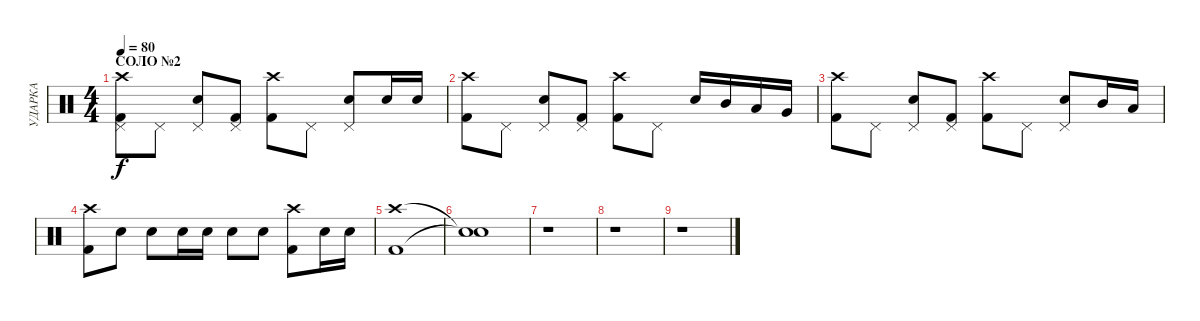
\track ("УДАРКА" "УДАРКА") {instrument percussion}
\staff {score}
\articulation defaults
\ts (4 4)
\section ("" "СОЛО №2")
\tempo 80
\clef neutral
\ks c
("Pedal Hi-Hat (hit)" "Kick (hit) 2" "Crash high (hit)").8{dy f} "Pedal Hi-Hat (hit)".8 ("Pedal Hi-Hat (hit)" "Electric Snare (hit)").8 ("Pedal Hi-Hat (hit)" "Kick (hit) 2").8 ("Crash high (hit)" "Kick (hit) 2").8 "Pedal Hi-Hat (hit)".8 ("Pedal Hi-Hat (hit)" "Electric Snare (hit)").8 "Electric Snare (hit)".16 "Electric Snare (hit)".16 |
("Crash high (hit)" "Kick (hit) 2").8 "Pedal Hi-Hat (hit)".8 ("Pedal Hi-Hat (hit)" "Electric Snare (hit)").8 ("Pedal Hi-Hat (hit)" "Kick (hit) 2").8 ("Crash high (hit)" "Kick (hit) 2").8 "Pedal Hi-Hat (hit)".8 "Electric Snare (hit)".16 "Mid Tom (hit)".16 "Low Tom (hit)".16 "Very Low Tom (hit)".16 |
("Crash high (hit)" "Kick (hit) 2").8 "Pedal Hi-Hat (hit)".8 ("Pedal Hi-Hat (hit)" "Electric Snare (hit)").8 ("Pedal Hi-Hat (hit)" "Kick (hit) 2").8 ("Crash high (hit)" "Kick (hit) 2").8 "Pedal Hi-Hat (hit)".8 ("Pedal Hi-Hat (hit)" "Electric Snare (hit)").8 "Mid Tom (hit)".16 "Low Tom (hit)".16 |
("Crash high (hit)" "Kick (hit) 2").8 "Electric Snare (hit)".8 "Electric Snare (hit)".8 "Electric Snare (hit)".16 "Electric Snare (hit)".16 "Electric Snare (hit)".8 "Electric Snare (hit)".8 ("Crash high (hit)" "Kick (hit) 2").8 "Electric Snare (hit)".16 "Electric Snare (hit)".16 |
("Crash high (hit)" "Kick (hit) 2").1 |
("Snare (hit)"{t} "Snare (hit)"{t}).1 |
r.1 |
r.1 |
r.1
